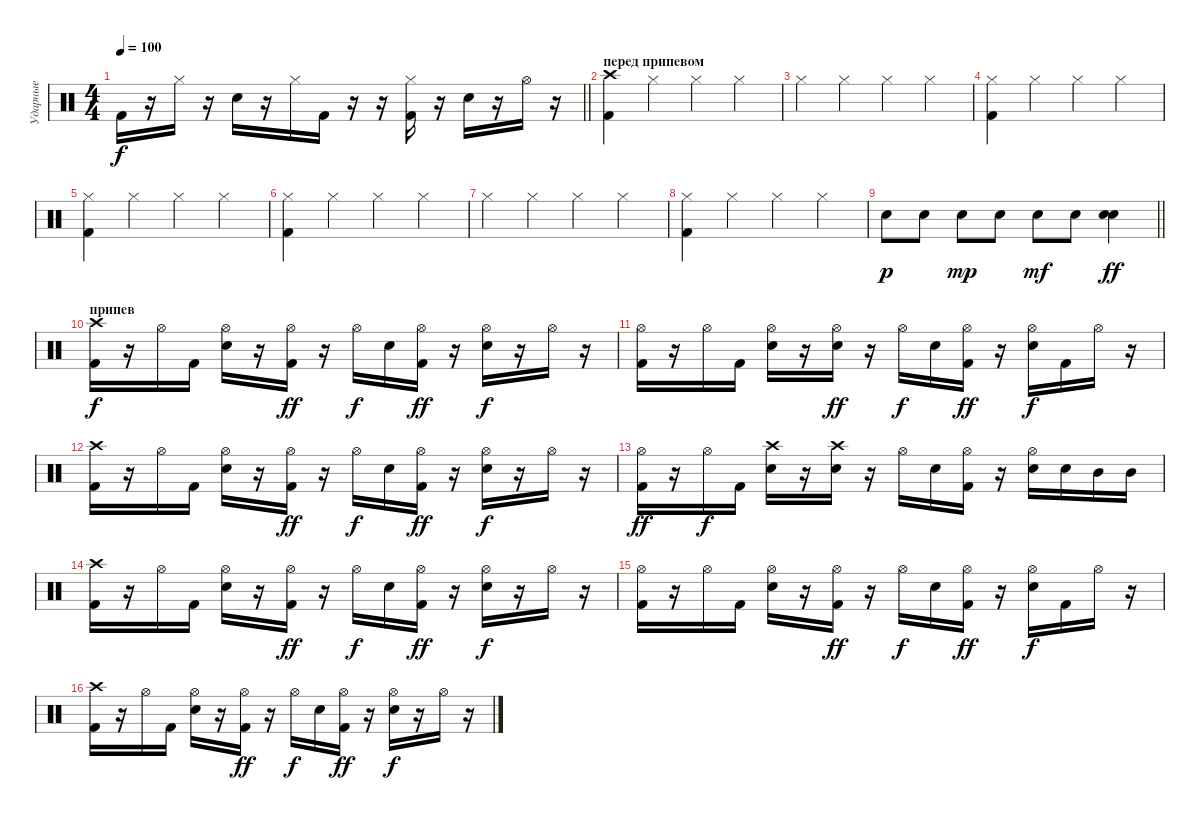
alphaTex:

\track ("Ударные" "Ударные") {instrument percussion}
\staff {score}
\articulation defaults
\ts (4 4)
\tempo 100
\clef neutral
\barLineRight lightlight
\ks c "Kick (hit) 2".16{dy f}
r.16 "Hi-Hat (closed)".16 r.16 "Electric Snare (hit)".16 r.16 "Hi-Hat (closed)".16 "Kick (hit) 2".16 r.16 r.16 ("Hi-Hat (closed)" "Kick (hit) 2").16 r.16 "Electric Snare (hit)".16 r.16 "Hi-Hat (open)".16 r.16 |
\section ("" "перед припевом ")
("Crash high (hit)" "Kick (hit) 2").4 "Hi-Hat (closed)".4 "Hi-Hat (closed)".4 "Hi-Hat (closed)".4 |
"Hi-Hat (closed)".4 "Hi-Hat (closed)".4 "Hi-Hat (closed)".4 "Hi-Hat (closed)".4 |
("Hi-Hat (closed)" "Kick (hit) 2").4 "Hi-Hat (closed)".4 "Hi-Hat (closed)".4 "Hi-Hat (closed)".4 |
("Hi-Hat (closed)" "Kick (hit) 2").4 "Hi-Hat (closed)".4 "Hi-Hat (closed)".4 "Hi-Hat (closed)".4 |
("Hi-Hat (closed)" "Kick (hit) 2").4 "Hi-Hat (closed)".4 "Hi-Hat (closed)".4 "Hi-Hat (closed)".4 |
"Hi-Hat (closed)".4 "Hi-Hat (closed)".4 "Hi-Hat (closed)".4 "Hi-Hat (closed)".4 |
("Hi-Hat (closed)" "Kick (hit) 2").4 "Hi-Hat (closed)".4 "Hi-Hat (closed)".4 "Hi-Hat (closed)".4 |
\barLineRight lightlight "Electric Snare (hit)".8{dy p} "Electric Snare (hit)".8 "Electric Snare (hit)".8{dy mp} "Electric Snare (hit)".8 "Electric Snare (hit)".8{dy mf} "Electric Snare (hit)".8
("Electric Snare (hit)" "Electric Snare (hit)").4{dy ff} |
\section ("" "припев")
("Crash high (hit)" "Kick (hit) 2").16{dy f} r.16 "Hi-Hat (open)".16 "Kick (hit) 2".16 ("Hi-Hat (open)" "Electric Snare (hit)").16 r.16 ("Hi-Hat (open)" "Kick (hit) 2").16{dy ff} r.16 "Hi-Hat (open)".16{dy f} "Electric Snare (hit)".16 ("Hi-Hat (open)" "Kick (hit) 2").16{dy ff} r.16 ("Hi-Hat (open)" "Electric Snare (hit)").16{dy f} r.16 "Hi-Hat (open)".16 r.16 |
("Hi-Hat (open)" "Kick (hit) 2").16 r.16 "Hi-Hat (open)".16 "Kick (hit) 2".16 ("Hi-Hat (open)" "Electric Snare (hit)").16 r.16 ("Hi-Hat (open)" "Electric Snare (hit)").16{dy ff} r.16 "Hi-Hat (open)".16{dy f} "Electric Snare (hit)".16 ("Hi-Hat (open)" "Kick (hit) 2").16{dy ff} r.16 ("Hi-Hat (open)" "Electric Snare (hit)").16{dy f} "Kick (hit) 2".16 "Hi-Hat (open)".16 r.16 |
("Crash high (hit)" "Kick (hit) 2").16 r.16 "Hi-Hat (open)".16 "Kick (hit) 2".16 ("Hi-Hat (open)" "Electric Snare (hit)").16 r.16 ("Hi-Hat (open)" "Kick (hit) 2").16{dy ff} r.16 "Hi-Hat (open)".16{dy f} "Electric Snare (hit)".16 ("Hi-Hat (open)" "Kick (hit) 2").16{dy ff} r.16 ("Hi-Hat (open)" "Electric Snare (hit)").16{dy f} r.16 "Hi-Hat (open)".16 r.16 |
("Hi-Hat (open)" "Kick (hit) 2").16{dy ff} r.16 "Hi-Hat (open)".16{dy f} "Kick (hit) 2".16 ("Crash high (hit)" "Electric Snare (hit)").16 r.16 ("Crash high (hit)" "Electric Snare (hit)").16 r.16 "Hi-Hat (open)".16 "Electric Snare (hit)".16 ("Hi-Hat (open)" "Kick (hit) 2").16 r.16 ("Hi-Hat (open)" "Electric Snare (hit)").16 "Electric Snare (hit)".16 "Mid Tom (hit)".16 "Mid Tom (hit)".16 |
("Crash high (hit)" "Kick (hit) 2").16 r.16 "Hi-Hat (open)".16 "Kick (hit) 2".16 ("Hi-Hat (open)" "Electric Snare (hit)").16 r.16 ("Hi-Hat (open)" "Kick (hit) 2").16{dy ff} r.16 "Hi-Hat (open)".16{dy f} "Electric Snare (hit)".16 ("Hi-Hat (open)" "Kick (hit) 2").16{dy ff} r.16 ("Hi-Hat (open)" "Electric Snare (hit)").16{dy f} r.16 "Hi-Hat (open)".16 r.16 |
("Hi-Hat (open)" "Kick (hit) 2").16 r.16 "Hi-Hat (open)".16 "Kick (hit) 2".16 ("Hi-Hat (open)" "Electric Snare (hit)").16 r.16 ("Hi-Hat (open)" "Kick (hit) 2").16{dy ff} r.16 "Hi-Hat (open)".16{dy f} "Electric Snare (hit)".16 ("Hi-Hat (open)" "Kick (hit) 2").16{dy ff} r.16 ("Hi-Hat (open)" "Electric Snare (hit)").16{dy f} "Kick (hit) 2".16 "Hi-Hat (open)".16 r.16 |
("Crash high (hit)" "Kick (hit) 2").16 r.16 "Hi-Hat (open)".16 "Kick (hit) 2".16 ("Hi-Hat (open)" "Electric Snare (hit)").16 r.16 ("Hi-Hat (open)" "Kick (hit) 2").16{dy ff} r.16 "Hi-Hat (open)".16{dy f} "Electric Snare (hit)".16 ("Hi-Hat (open)" "Kick (hit) 2").16{dy ff} r.16 ("Hi-Hat (open)" "Electric Snare (hit)").16{dy f} r.16 "Hi-Hat (open)".16 r.16
